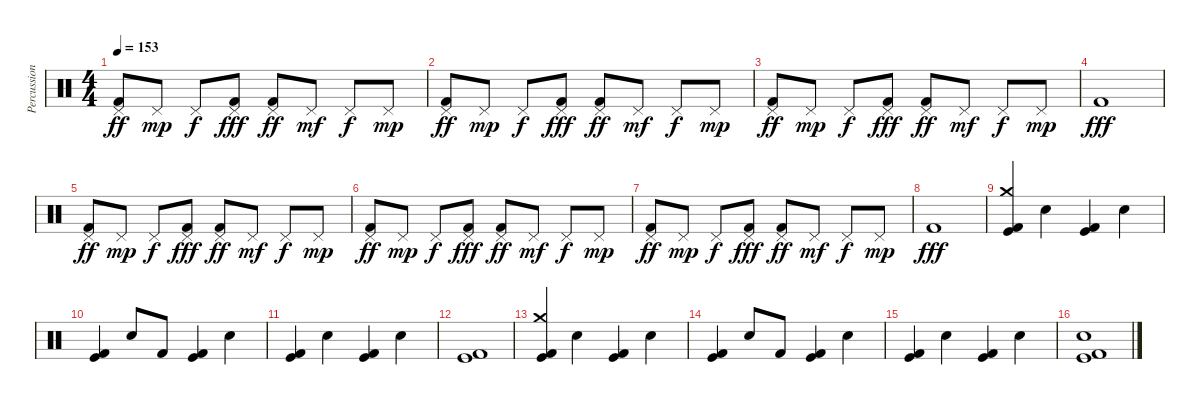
\track ("Percussion" "Percussion") {instrument percussion}
\staff {score}
\articulation defaults
\ts (4 4)
\tempo 153
\clef neutral
\ks c
("Pedal Hi-Hat (hit)" "Kick (hit) 2").8{dy ff} "Pedal Hi-Hat (hit)".8{dy mp} "Pedal Hi-Hat (hit)".8{dy f} ("Pedal Hi-Hat (hit)" "Kick (hit) 2").8{dy fff} ("Pedal Hi-Hat (hit)" "Kick (hit) 2").8{dy ff} "Pedal Hi-Hat (hit)".8{dy mf} "Pedal Hi-Hat (hit)".8{dy f} "Pedal Hi-Hat (hit)".8{dy mp} |
("Pedal Hi-Hat (hit)" "Kick (hit) 2").8{dy ff} "Pedal Hi-Hat (hit)".8{dy mp} "Pedal Hi-Hat (hit)".8{dy f} ("Pedal Hi-Hat (hit)" "Kick (hit) 2").8{dy fff} ("Pedal Hi-Hat (hit)" "Kick (hit) 2").8{dy ff} "Pedal Hi-Hat (hit)".8{dy mf} "Pedal Hi-Hat (hit)".8{dy f} "Pedal Hi-Hat (hit)".8{dy mp} |
("Pedal Hi-Hat (hit)" "Kick (hit) 2").8{dy ff} "Pedal Hi-Hat (hit)".8{dy mp} "Pedal Hi-Hat (hit)".8{dy f} ("Pedal Hi-Hat (hit)" "Kick (hit) 2").8{dy fff} ("Pedal Hi-Hat (hit)" "Kick (hit) 2").8{dy ff} "Pedal Hi-Hat (hit)".8{dy mf} "Pedal Hi-Hat (hit)".8{dy f} "Pedal Hi-Hat (hit)".8{dy mp} |
"Kick (hit) 2".1{dy fff} |
("Pedal Hi-Hat (hit)" "Kick (hit) 2").8{dy ff} "Pedal Hi-Hat (hit)".8{dy mp} "Pedal Hi-Hat (hit)".8{dy f} ("Pedal Hi-Hat (hit)" "Kick (hit) 2").8{dy fff} ("Pedal Hi-Hat (hit)" "Kick (hit) 2").8{dy ff} "Pedal Hi-Hat (hit)".8{dy mf} "Pedal Hi-Hat (hit)".8{dy f} "Pedal Hi-Hat (hit)".8{dy mp} |
("Pedal Hi-Hat (hit)" "Kick (hit) 2").8{dy ff} "Pedal Hi-Hat (hit)".8{dy mp} "Pedal Hi-Hat (hit)".8{dy f} ("Pedal Hi-Hat (hit)" "Kick (hit) 2").8{dy fff} ("Pedal Hi-Hat (hit)" "Kick (hit) 2").8{dy ff} "Pedal Hi-Hat (hit)".8{dy mf} "Pedal Hi-Hat (hit)".8{dy f} "Pedal Hi-Hat (hit)".8{dy mp} |
("Pedal Hi-Hat (hit)" "Kick (hit) 2").8{dy ff} "Pedal Hi-Hat (hit)".8{dy mp} "Pedal Hi-Hat (hit)".8{dy f} ("Pedal Hi-Hat (hit)" "Kick (hit) 2").8{dy fff} ("Pedal Hi-Hat (hit)" "Kick (hit) 2").8{dy ff} "Pedal Hi-Hat (hit)".8{dy mf} "Pedal Hi-Hat (hit)".8{dy f} "Pedal Hi-Hat (hit)".8{dy mp} |
"Kick (hit) 2".1{dy fff} |
("Crash medium (hit)" "Kick (hit)" "Kick (hit) 2").4 "Snare (hit) 2".4 ("Kick (hit)" "Kick (hit) 2").4 "Snare (hit) 2".4 |
("Kick (hit)" "Kick (hit) 2").4 "Snare (hit) 2".8 "Kick (hit) 2".8 ("Kick (hit)" "Kick (hit) 2").4 "Snare (hit) 2".4 |
("Kick (hit)" "Kick (hit) 2").4 "Snare (hit) 2".4 ("Kick (hit)" "Kick (hit) 2").4 "Snare (hit) 2".4 |
("Kick (hit)" "Kick (hit) 2").1 |
("Crash medium (hit)" "Kick (hit)" "Kick (hit) 2").4 "Snare (hit) 2".4 ("Kick (hit)" "Kick (hit) 2").4 "Snare (hit) 2".4 |
("Kick (hit)" "Kick (hit) 2").4 "Snare (hit) 2".8 "Kick (hit) 2".8 ("Kick (hit)" "Kick (hit) 2").4 "Snare (hit) 2".4 |
("Kick (hit)" "Kick (hit) 2").4 "Snare (hit) 2".4 ("Kick (hit)" "Kick (hit) 2").4 "Snare (hit) 2".4 |
("Snare (hit) 2" "Kick (hit)" "Kick (hit) 2").1
